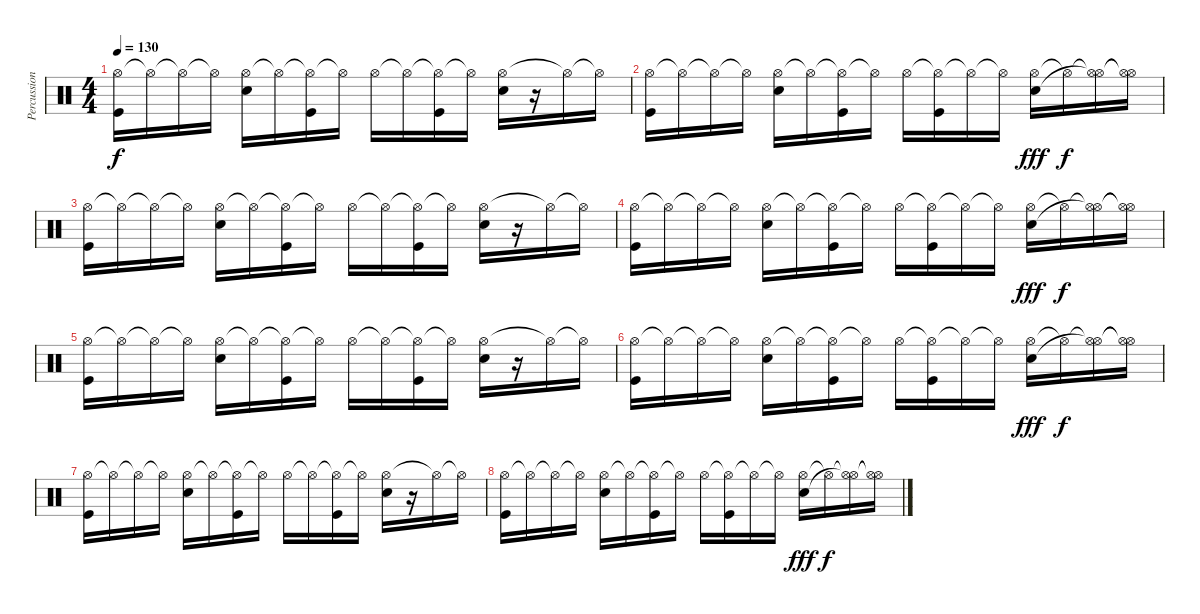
\track ("Percussion" "Percussion") {instrument percussion}
\staff {score}
\articulation defaults
\ts (4 4)
\tempo 130
\clef neutral
\ks c
("Hi-Hat (open)" "Kick (hit)").16{dy f} "Hi-Hat (open)"{t}.16 "Hi-Hat (open)"{t}.16 "Hi-Hat (open)"{t}.16 ("Hi-Hat (open)" "Snare (hit) 2").16 "Hi-Hat (open)"{t}.16 ("Hi-Hat (open)"{t} "Kick (hit)").16 "Hi-Hat (open)"{t}.16 "Hi-Hat (open)".16 "Hi-Hat (open)"{t}.16 ("Hi-Hat (open)"{t} "Kick (hit)").16 "Hi-Hat (open)"{t}.16 ("Hi-Hat (open)" "Snare (hit) 2").16 r.16 "Hi-Hat (open)"{t}.16 "Hi-Hat (open)"{t}.16 |
("Hi-Hat (open)" "Kick (hit)").16 "Hi-Hat (open)"{t}.16 "Hi-Hat (open)"{t}.16 "Hi-Hat (open)"{t}.16 ("Hi-Hat (open)" "Snare (hit) 2").16 "Hi-Hat (open)"{t}.16 ("Hi-Hat (open)"{t} "Kick (hit)").16 "Hi-Hat (open)"{t}.16 "Hi-Hat (open)".16 ("Hi-Hat (open)"{t} "Kick (hit)").16 "Hi-Hat (open)"{t}.16 "Hi-Hat (open)"{t}.16 ("Hi-Hat (open)" "Snare (hit) 2").16{dy fff} "Hi-Hat (open)"{t}.16{dy f} ("Hi-Hat (open)"{t} "Hi-Hat (open)"{t}).16 ("Hi-Hat (open)"{t} "Hi-Hat (open)"{t}).16 |
("Hi-Hat (open)" "Kick (hit)").16 "Hi-Hat (open)"{t}.16 "Hi-Hat (open)"{t}.16 "Hi-Hat (open)"{t}.16 ("Hi-Hat (open)" "Snare (hit) 2").16 "Hi-Hat (open)"{t}.16 ("Hi-Hat (open)"{t} "Kick (hit)").16 "Hi-Hat (open)"{t}.16 "Hi-Hat (open)".16 "Hi-Hat (open)"{t}.16 ("Hi-Hat (open)"{t} "Kick (hit)").16 "Hi-Hat (open)"{t}.16 ("Hi-Hat (open)" "Snare (hit) 2").16 r.16 "Hi-Hat (open)"{t}.16 "Hi-Hat (open)"{t}.16 |
("Hi-Hat (open)" "Kick (hit)").16 "Hi-Hat (open)"{t}.16 "Hi-Hat (open)"{t}.16 "Hi-Hat (open)"{t}.16 ("Hi-Hat (open)" "Snare (hit) 2").16 "Hi-Hat (open)"{t}.16 ("Hi-Hat (open)"{t} "Kick (hit)").16 "Hi-Hat (open)"{t}.16 "Hi-Hat (open)".16 ("Hi-Hat (open)"{t} "Kick (hit)").16 "Hi-Hat (open)"{t}.16 "Hi-Hat (open)"{t}.16 ("Hi-Hat (open)" "Snare (hit) 2").16{dy fff} "Hi-Hat (open)"{t}.16{dy f} ("Hi-Hat (open)"{t} "Hi-Hat (open)"{t}).16 ("Hi-Hat (open)"{t} "Hi-Hat (open)"{t}).16 |
("Hi-Hat (open)" "Kick (hit)").16 "Hi-Hat (open)"{t}.16 "Hi-Hat (open)"{t}.16 "Hi-Hat (open)"{t}.16 ("Hi-Hat (open)" "Snare (hit) 2").16 "Hi-Hat (open)"{t}.16 ("Hi-Hat (open)"{t} "Kick (hit)").16 "Hi-Hat (open)"{t}.16 "Hi-Hat (open)".16 "Hi-Hat (open)"{t}.16 ("Hi-Hat (open)"{t} "Kick (hit)").16 "Hi-Hat (open)"{t}.16 ("Hi-Hat (open)" "Snare (hit) 2").16 r.16 "Hi-Hat (open)"{t}.16 "Hi-Hat (open)"{t}.16 |
("Hi-Hat (open)" "Kick (hit)").16 "Hi-Hat (open)"{t}.16 "Hi-Hat (open)"{t}.16 "Hi-Hat (open)"{t}.16 ("Hi-Hat (open)" "Snare (hit) 2").16 "Hi-Hat (open)"{t}.16 ("Hi-Hat (open)"{t} "Kick (hit)").16 "Hi-Hat (open)"{t}.16 "Hi-Hat (open)".16 ("Hi-Hat (open)"{t} "Kick (hit)").16 "Hi-Hat (open)"{t}.16 "Hi-Hat (open)"{t}.16 ("Hi-Hat (open)" "Snare (hit) 2").16{dy fff} "Hi-Hat (open)"{t}.16{dy f} ("Hi-Hat (open)"{t} "Hi-Hat (open)"{t}).16 ("Hi-Hat (open)"{t} "Hi-Hat (open)"{t}).16 |
("Hi-Hat (open)" "Kick (hit)").16 "Hi-Hat (open)"{t}.16 "Hi-Hat (open)"{t}.16 "Hi-Hat (open)"{t}.16 ("Hi-Hat (open)" "Snare (hit) 2").16 "Hi-Hat (open)"{t}.16 ("Hi-Hat (open)"{t} "Kick (hit)").16 "Hi-Hat (open)"{t}.16 "Hi-Hat (open)".16 "Hi-Hat (open)"{t}.16 ("Hi-Hat (open)"{t} "Kick (hit)").16 "Hi-Hat (open)"{t}.16 ("Hi-Hat (open)" "Snare (hit) 2").16 r.16 "Hi-Hat (open)"{t}.16 "Hi-Hat (open)"{t}.16 |
("Hi-Hat (open)" "Kick (hit)").16 "Hi-Hat (open)"{t}.16 "Hi-Hat (open)"{t}.16 "Hi-Hat (open)"{t}.16 ("Hi-Hat (open)" "Snare (hit) 2").16 "Hi-Hat (open)"{t}.16 ("Hi-Hat (open)"{t} "Kick (hit)").16 "Hi-Hat (open)"{t}.16 "Hi-Hat (open)".16 ("Hi-Hat (open)"{t} "Kick (hit)").16 "Hi-Hat (open)"{t}.16 "Hi-Hat (open)"{t}.16 ("Hi-Hat (open)" "Snare (hit) 2").16{dy fff} "Hi-Hat (open)"{t}.16{dy f} ("Hi-Hat (open)"{t} "Hi-Hat (open)"{t}).16 ("Hi-Hat (open)"{t} "Hi-Hat (open)"{t}).16
